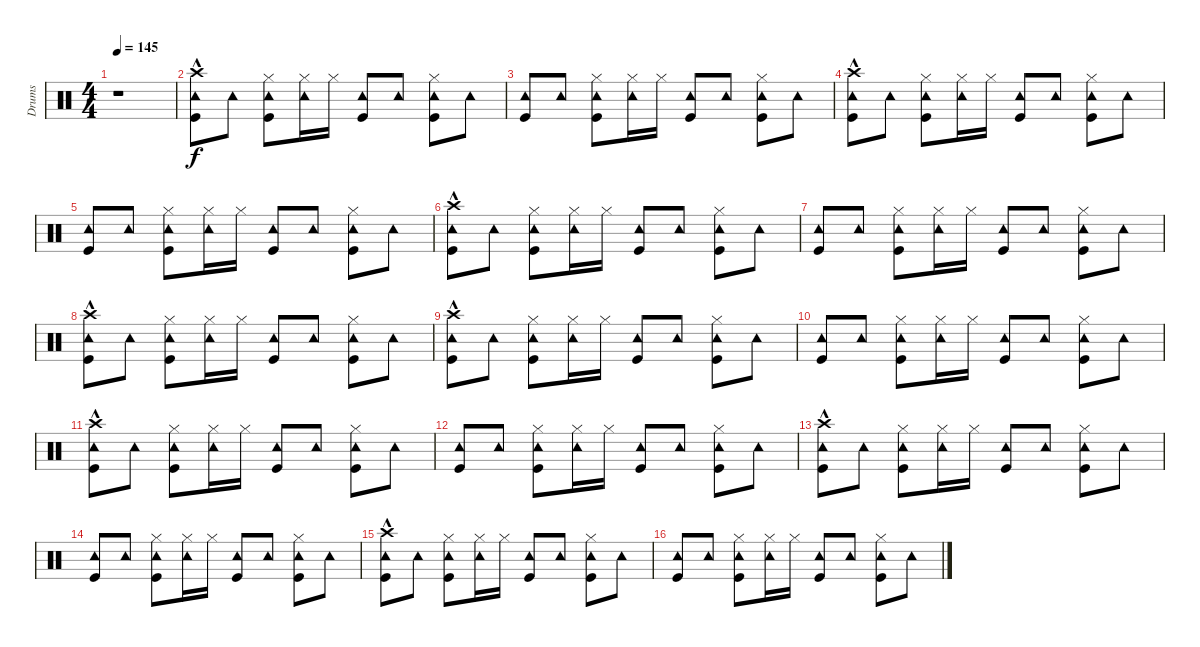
\track ("Drums" "Drums") {instrument percussion}
\staff {score}
\articulation defaults
\ts (4 4)
\tempo 145
\clef neutral
\ks c
r.1{dy f} |
("Tambourine (hit)" "Kick (hit)" "Crash high (hit)"{hac}).8 "Tambourine (hit)".8 ("Hi-Hat (closed)" "Kick (hit)" "Tambourine (hit)").8 ("Tambourine (hit)" "Hi-Hat (closed)").16 "Hi-Hat (closed)".16 ("Tambourine (hit)" "Kick (hit)").8 "Tambourine (hit)".8 ("Kick (hit)" "Tambourine (hit)" "Hi-Hat (closed)").8 "Tambourine (hit)".8 |
("Tambourine (hit)" "Kick (hit)").8 "Tambourine (hit)".8 ("Tambourine (hit)" "Hi-Hat (closed)" "Kick (hit)").8 ("Hi-Hat (closed)" "Tambourine (hit)").16 "Hi-Hat (closed)".16 ("Kick (hit)" "Tambourine (hit)").8 "Tambourine (hit)".8 ("Hi-Hat (closed)" "Kick (hit)" "Tambourine (hit)").8 "Tambourine (hit)".8 |
("Kick (hit)" "Crash high (hit)"{hac} "Tambourine (hit)").8 "Tambourine (hit)".8 ("Tambourine (hit)" "Hi-Hat (closed)" "Kick (hit)").8 ("Tambourine (hit)" "Hi-Hat (closed)").16 "Hi-Hat (closed)".16 ("Tambourine (hit)" "Kick (hit)").8 "Tambourine (hit)".8 ("Tambourine (hit)" "Hi-Hat (closed)" "Kick (hit)").8 "Tambourine (hit)".8 |
("Tambourine (hit)" "Kick (hit)").8 "Tambourine (hit)".8 ("Kick (hit)" "Tambourine (hit)" "Hi-Hat (closed)").8 ("Tambourine (hit)" "Hi-Hat (closed)").16 "Hi-Hat (closed)".16 ("Tambourine (hit)" "Kick (hit)").8 "Tambourine (hit)".8 ("Tambourine (hit)" "Hi-Hat (closed)" "Kick (hit)").8 "Tambourine (hit)".8 |
("Tambourine (hit)" "Kick (hit)" "Crash high (hit)"{hac}).8 "Tambourine (hit)".8 ("Tambourine (hit)" "Hi-Hat (closed)" "Kick (hit)").8 ("Hi-Hat (closed)" "Tambourine (hit)").16 "Hi-Hat (closed)".16 ("Kick (hit)" "Tambourine (hit)").8 "Tambourine (hit)".8 ("Kick (hit)" "Tambourine (hit)" "Hi-Hat (closed)").8 "Tambourine (hit)".8 |
("Tambourine (hit)" "Kick (hit)").8 "Tambourine (hit)".8 ("Tambourine (hit)" "Hi-Hat (closed)" "Kick (hit)").8 ("Tambourine (hit)" "Hi-Hat (closed)").16 "Hi-Hat (closed)".16 ("Tambourine (hit)" "Kick (hit)").8 "Tambourine (hit)".8 ("Hi-Hat (closed)" "Kick (hit)" "Tambourine (hit)").8 "Tambourine (hit)".8 |
("Crash high (hit)"{hac} "Tambourine (hit)" "Kick (hit)").8 "Tambourine (hit)".8 ("Kick (hit)" "Tambourine (hit)" "Hi-Hat (closed)").8 ("Tambourine (hit)" "Hi-Hat (closed)").16 "Hi-Hat (closed)".16 ("Tambourine (hit)" "Kick (hit)").8 "Tambourine (hit)".8 ("Tambourine (hit)" "Hi-Hat (closed)" "Kick (hit)").8 "Tambourine (hit)".8 |
("Tambourine (hit)" "Kick (hit)" "Crash high (hit)"{hac}).8 "Tambourine (hit)".8 ("Hi-Hat (closed)" "Kick (hit)" "Tambourine (hit)").8 ("Tambourine (hit)" "Hi-Hat (closed)").16 "Hi-Hat (closed)".16 ("Tambourine (hit)" "Kick (hit)").8 "Tambourine (hit)".8 ("Tambourine (hit)" "Hi-Hat (closed)" "Kick (hit)").8 "Tambourine (hit)".8 |
("Tambourine (hit)" "Kick (hit)").8 "Tambourine (hit)".8 ("Tambourine (hit)" "Hi-Hat (closed)" "Kick (hit)").8 ("Hi-Hat (closed)" "Tambourine (hit)").16 "Hi-Hat (closed)".16 ("Kick (hit)" "Tambourine (hit)").8 "Tambourine (hit)".8 ("Hi-Hat (closed)" "Kick (hit)" "Tambourine (hit)").8 "Tambourine (hit)".8 |
("Crash high (hit)"{hac} "Tambourine (hit)" "Kick (hit)").8 "Tambourine (hit)".8 ("Tambourine (hit)" "Hi-Hat (closed)" "Kick (hit)").8 ("Tambourine (hit)" "Hi-Hat (closed)").16 "Hi-Hat (closed)".16 ("Tambourine (hit)" "Kick (hit)").8 "Tambourine (hit)".8 ("Hi-Hat (closed)" "Kick (hit)" "Tambourine (hit)").8 "Tambourine (hit)".8 |
("Tambourine (hit)" "Kick (hit)").8 "Tambourine (hit)".8 ("Kick (hit)" "Tambourine (hit)" "Hi-Hat (closed)").8 ("Tambourine (hit)" "Hi-Hat (closed)").16 "Hi-Hat (closed)".16 ("Tambourine (hit)" "Kick (hit)").8 "Tambourine (hit)".8 ("Kick (hit)" "Tambourine (hit)" "Hi-Hat (closed)").8 "Tambourine (hit)".8 |
("Tambourine (hit)" "Kick (hit)" "Crash high (hit)"{hac}).8 "Tambourine (hit)".8 ("Tambourine (hit)" "Hi-Hat (closed)" "Kick (hit)").8 ("Hi-Hat (closed)" "Tambourine (hit)").16 "Hi-Hat (closed)".16 ("Kick (hit)" "Tambourine (hit)").8 "Tambourine (hit)".8 ("Tambourine (hit)" "Hi-Hat (closed)" "Kick (hit)").8 "Tambourine (hit)".8 |
("Tambourine (hit)" "Kick (hit)").8 "Tambourine (hit)".8 ("Tambourine (hit)" "Hi-Hat (closed)" "Kick (hit)").8 ("Tambourine (hit)" "Hi-Hat (closed)").16 "Hi-Hat (closed)".16 ("Tambourine (hit)" "Kick (hit)").8 "Tambourine (hit)".8 ("Kick (hit)" "Hi-Hat (closed)" "Tambourine (hit)").8 "Tambourine (hit)".8 |
("Tambourine (hit)" "Kick (hit)" "Crash high (hit)"{hac}).8 "Tambourine (hit)".8 ("Tambourine (hit)" "Hi-Hat (closed)" "Kick (hit)").8 ("Hi-Hat (closed)" "Tambourine (hit)").16 "Hi-Hat (closed)".16 ("Kick (hit)" "Tambourine (hit)").8 "Tambourine (hit)".8 ("Tambourine (hit)" "Hi-Hat (closed)" "Kick (hit)").8 "Tambourine (hit)".8 |
("Tambourine (hit)" "Kick (hit)").8 "Tambourine (hit)".8 ("Tambourine (hit)" "Hi-Hat (closed)" "Kick (hit)").8 ("Tambourine (hit)" "Hi-Hat (closed)").16 "Hi-Hat (closed)".16 ("Tambourine (hit)" "Kick (hit)").8 "Tambourine (hit)".8 ("Kick (hit)" "Hi-Hat (closed)" "Tambourine (hit)").8 "Tambourine (hit)".8
